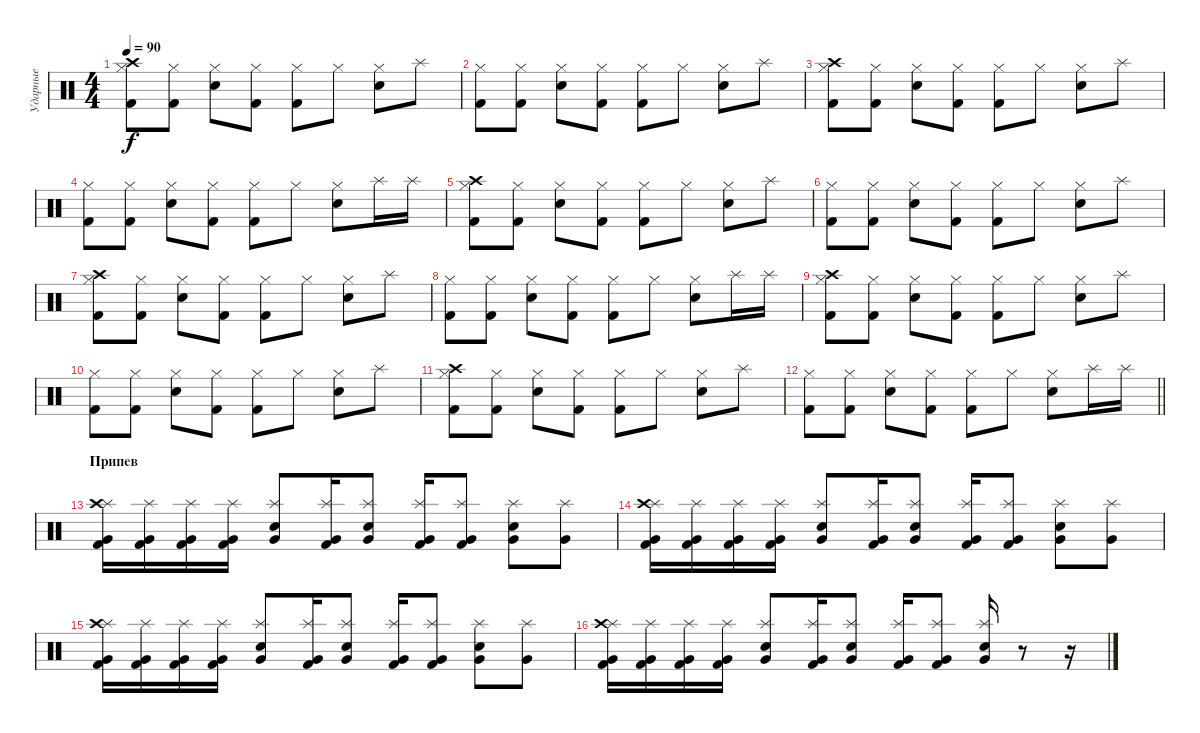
\track ("Ударные" "Ударные") {instrument percussion}
\staff {score}
\articulation defaults
\ts (4 4)
\tempo 90
\clef neutral
\ks c
("Hi-Hat (closed)" "Crash high (hit)" "Kick (hit) 2").8{dy f} ("Hi-Hat (closed)" "Kick (hit) 2").8 ("Hi-Hat (closed)" "Snare (hit) 2").8 ("Hi-Hat (closed)" "Kick (hit) 2").8 ("Hi-Hat (closed)" "Kick (hit) 2").8 "Hi-Hat (closed)".8 ("Hi-Hat (closed)" "Snare (hit) 2").8 "Splash (hit)".8 |
("Hi-Hat (closed)" "Kick (hit) 2").8 ("Hi-Hat (closed)" "Kick (hit) 2").8 ("Hi-Hat (closed)" "Snare (hit) 2").8 ("Hi-Hat (closed)" "Kick (hit) 2").8 ("Hi-Hat (closed)" "Kick (hit) 2").8 "Hi-Hat (closed)".8 ("Hi-Hat (closed)" "Snare (hit) 2").8 "Splash (hit)".8 |
("Hi-Hat (closed)" "Crash high (hit)" "Kick (hit) 2").8 ("Hi-Hat (closed)" "Kick (hit) 2").8 ("Hi-Hat (closed)" "Snare (hit) 2").8 ("Hi-Hat (closed)" "Kick (hit) 2").8 ("Hi-Hat (closed)" "Kick (hit) 2").8 "Hi-Hat (closed)".8 ("Hi-Hat (closed)" "Snare (hit) 2").8 "Splash (hit)".8 |
("Hi-Hat (closed)" "Kick (hit) 2").8 ("Hi-Hat (closed)" "Kick (hit) 2").8 ("Hi-Hat (closed)" "Snare (hit) 2").8 ("Hi-Hat (closed)" "Kick (hit) 2").8 ("Hi-Hat (closed)" "Kick (hit) 2").8 "Hi-Hat (closed)".8 ("Hi-Hat (closed)" "Snare (hit) 2").8 "Splash (hit)".16 "Splash (hit)".16 |
("Hi-Hat (closed)" "Crash high (hit)" "Kick (hit) 2").8 ("Hi-Hat (closed)" "Kick (hit) 2").8 ("Hi-Hat (closed)" "Snare (hit) 2").8 ("Hi-Hat (closed)" "Kick (hit) 2").8 ("Hi-Hat (closed)" "Kick (hit) 2").8 "Hi-Hat (closed)".8 ("Hi-Hat (closed)" "Snare (hit) 2").8 "Splash (hit)".8 |
("Hi-Hat (closed)" "Kick (hit) 2").8 ("Hi-Hat (closed)" "Kick (hit) 2").8 ("Hi-Hat (closed)" "Snare (hit) 2").8 ("Hi-Hat (closed)" "Kick (hit) 2").8 ("Hi-Hat (closed)" "Kick (hit) 2").8 "Hi-Hat (closed)".8 ("Hi-Hat (closed)" "Snare (hit) 2").8 "Splash (hit)".8 |
("Hi-Hat (closed)" "Crash high (hit)" "Kick (hit) 2").8 ("Hi-Hat (closed)" "Kick (hit) 2").8 ("Hi-Hat (closed)" "Snare (hit) 2").8 ("Hi-Hat (closed)" "Kick (hit) 2").8 ("Hi-Hat (closed)" "Kick (hit) 2").8 "Hi-Hat (closed)".8 ("Hi-Hat (closed)" "Snare (hit) 2").8 "Splash (hit)".8 |
("Hi-Hat (closed)" "Kick (hit) 2").8 ("Hi-Hat (closed)" "Kick (hit) 2").8 ("Hi-Hat (closed)" "Snare (hit) 2").8 ("Hi-Hat (closed)" "Kick (hit) 2").8 ("Hi-Hat (closed)" "Kick (hit) 2").8 "Hi-Hat (closed)".8 ("Hi-Hat (closed)" "Snare (hit) 2").8 "Splash (hit)".16 "Splash (hit)".16 |
("Hi-Hat (closed)" "Crash high (hit)" "Kick (hit) 2").8 ("Hi-Hat (closed)" "Kick (hit) 2").8 ("Hi-Hat (closed)" "Snare (hit) 2").8 ("Hi-Hat (closed)" "Kick (hit) 2").8 ("Hi-Hat (closed)" "Kick (hit) 2").8 "Hi-Hat (closed)".8 ("Hi-Hat (closed)" "Snare (hit) 2").8 "Splash (hit)".8 |
("Hi-Hat (closed)" "Kick (hit) 2").8 ("Hi-Hat (closed)" "Kick (hit) 2").8 ("Hi-Hat (closed)" "Snare (hit) 2").8 ("Hi-Hat (closed)" "Kick (hit) 2").8 ("Hi-Hat (closed)" "Kick (hit) 2").8 "Hi-Hat (closed)".8 ("Hi-Hat (closed)" "Snare (hit) 2").8 "Splash (hit)".8 |
("Hi-Hat (closed)" "Crash high (hit)" "Kick (hit) 2").8 ("Hi-Hat (closed)" "Kick (hit) 2").8 ("Hi-Hat (closed)" "Snare (hit) 2").8 ("Hi-Hat (closed)" "Kick (hit) 2").8 ("Hi-Hat (closed)" "Kick (hit) 2").8 "Hi-Hat (closed)".8 ("Hi-Hat (closed)" "Snare (hit) 2").8 "Splash (hit)".8 |
\barLineRight lightlight
("Hi-Hat (closed)" "Kick (hit) 2").8 ("Hi-Hat (closed)" "Kick (hit) 2").8 ("Hi-Hat (closed)" "Snare (hit) 2").8 ("Hi-Hat (closed)" "Kick (hit) 2").8 ("Hi-Hat (closed)" "Kick (hit) 2").8 "Hi-Hat (closed)".8 ("Hi-Hat (closed)" "Snare (hit) 2").8 "Splash (hit)".16 "Splash (hit)".16 |
\section ("" "Припев")
("Splash (hit)" "Crash high (hit)" "Very Low Tom (hit)" "Kick (hit) 2").16 ("Splash (hit)" "Very Low Tom (hit)" "Kick (hit) 2").16 ("Splash (hit)" "Very Low Tom (hit)" "Kick (hit) 2").16 ("Splash (hit)" "Very Low Tom (hit)" "Kick (hit) 2").16 ("Splash (hit)" "Snare (hit) 2" "Very Low Tom (hit)").8 ("Splash (hit)" "Very Low Tom (hit)" "Kick (hit) 2").16 ("Splash (hit)" "Snare (hit) 2" "Very Low Tom (hit)").8 ("Splash (hit)" "Very Low Tom (hit)" "Kick (hit) 2").16 ("Splash (hit)" "Very Low Tom (hit)" "Kick (hit) 2").8 ("Splash (hit)" "Snare (hit) 2" "Very Low Tom (hit)").8 ("Splash (hit)" "Very Low Tom (hit)").8 |
("Splash (hit)" "Crash high (hit)" "Very Low Tom (hit)" "Kick (hit) 2").16 ("Splash (hit)" "Very Low Tom (hit)" "Kick (hit) 2").16 ("Splash (hit)" "Very Low Tom (hit)" "Kick (hit) 2").16 ("Splash (hit)" "Very Low Tom (hit)" "Kick (hit) 2").16 ("Splash (hit)" "Snare (hit) 2" "Very Low Tom (hit)").8 ("Splash (hit)" "Very Low Tom (hit)" "Kick (hit) 2").16 ("Splash (hit)" "Snare (hit) 2" "Very Low Tom (hit)").8 ("Splash (hit)" "Very Low Tom (hit)" "Kick (hit) 2").16 ("Splash (hit)" "Very Low Tom (hit)" "Kick (hit) 2").8 ("Splash (hit)" "Snare (hit) 2" "Very Low Tom (hit)").8 ("Splash (hit)" "Very Low Tom (hit)").8 |
("Splash (hit)" "Crash high (hit)" "Very Low Tom (hit)" "Kick (hit) 2").16 ("Splash (hit)" "Very Low Tom (hit)" "Kick (hit) 2").16 ("Splash (hit)" "Very Low Tom (hit)" "Kick (hit) 2").16 ("Splash (hit)" "Very Low Tom (hit)" "Kick (hit) 2").16 ("Splash (hit)" "Snare (hit) 2" "Very Low Tom (hit)").8 ("Splash (hit)" "Very Low Tom (hit)" "Kick (hit) 2").16 ("Splash (hit)" "Snare (hit) 2" "Very Low Tom (hit)").8 ("Splash (hit)" "Very Low Tom (hit)" "Kick (hit) 2").16 ("Splash (hit)" "Very Low Tom (hit)" "Kick (hit) 2").8 ("Splash (hit)" "Snare (hit) 2" "Very Low Tom (hit)").8 ("Splash (hit)" "Very Low Tom (hit)").8 |
("Splash (hit)" "Crash high (hit)" "Very Low Tom (hit)" "Kick (hit) 2").16 ("Splash (hit)" "Very Low Tom (hit)" "Kick (hit) 2").16 ("Splash (hit)" "Very Low Tom (hit)" "Kick (hit) 2").16 ("Splash (hit)" "Very Low Tom (hit)" "Kick (hit) 2").16 ("Splash (hit)" "Snare (hit) 2" "Very Low Tom (hit)").8 ("Splash (hit)" "Very Low Tom (hit)" "Kick (hit) 2").16 ("Splash (hit)" "Snare (hit) 2" "Very Low Tom (hit)").8 ("Splash (hit)" "Very Low Tom (hit)" "Kick (hit) 2").16 ("Splash (hit)" "Very Low Tom (hit)" "Kick (hit) 2").8 ("Splash (hit)" "Snare (hit) 2" "Very Low Tom (hit)").16 r.8 r.16
